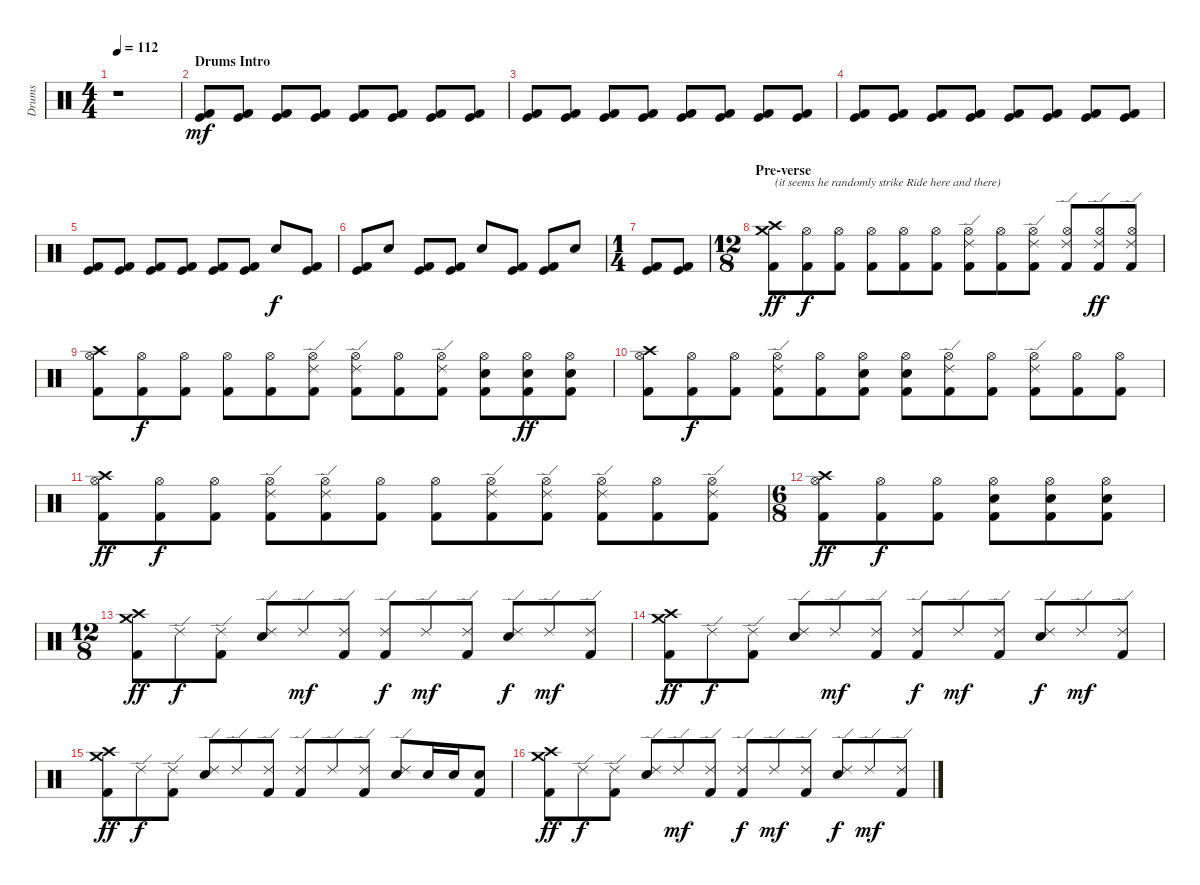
\track ("Drums" "Drums") {instrument percussion}
\staff {score}
\articulation defaults
\ts (4 4)
\tempo 112
\clef neutral
\ks c
r.1{dy mf} |
\section ("" "Drums Intro")
("Kick (hit)" "Kick (hit) 2").8 ("Kick (hit)" "Kick (hit) 2").8 ("Kick (hit)" "Kick (hit) 2").8 ("Kick (hit)" "Kick (hit) 2").8 ("Kick (hit)" "Kick (hit) 2").8 ("Kick (hit)" "Kick (hit) 2").8 ("Kick (hit)" "Kick (hit) 2").8 ("Kick (hit)" "Kick (hit) 2").8 |
("Kick (hit)" "Kick (hit) 2").8 ("Kick (hit)" "Kick (hit) 2").8 ("Kick (hit)" "Kick (hit) 2").8 ("Kick (hit)" "Kick (hit) 2").8 ("Kick (hit)" "Kick (hit) 2").8 ("Kick (hit)" "Kick (hit) 2").8 ("Kick (hit)" "Kick (hit) 2").8 ("Kick (hit)" "Kick (hit) 2").8 |
("Kick (hit)" "Kick (hit) 2").8 ("Kick (hit)" "Kick (hit) 2").8 ("Kick (hit)" "Kick (hit) 2").8 ("Kick (hit)" "Kick (hit) 2").8 ("Kick (hit)" "Kick (hit) 2").8 ("Kick (hit)" "Kick (hit) 2").8 ("Kick (hit)" "Kick (hit) 2").8 ("Kick (hit)" "Kick (hit) 2").8 |
("Kick (hit)" "Kick (hit) 2").8 ("Kick (hit)" "Kick (hit) 2").8 ("Kick (hit)" "Kick (hit) 2").8 ("Kick (hit)" "Kick (hit) 2").8 ("Kick (hit)" "Kick (hit) 2").8 ("Kick (hit)" "Kick (hit) 2").8 "Snare (hit) 2".8{dy f} ("Kick (hit)" "Kick (hit) 2").8 |
("Kick (hit)" "Kick (hit) 2").8 "Snare (hit) 2".8 ("Kick (hit)" "Kick (hit) 2").8 ("Kick (hit)" "Kick (hit) 2").8 "Snare (hit) 2".8 ("Kick (hit)" "Kick (hit) 2").8 ("Kick (hit)" "Kick (hit) 2").8 "Snare (hit) 2".8 |
\ts (1 4)
("Kick (hit)" "Kick (hit) 2").8 ("Kick (hit)" "Kick (hit) 2").8 |
\ts (12 8)
\section ("" "Pre-verse")
("Crash high (hit)" "Crash medium (hit)" "Kick (hit) 2").8{txt "(it seems he randomly strike Ride here and there)" dy ff} ("Hi-Hat (open)" "Kick (hit) 2").8{dy f} ("Hi-Hat (open)" "Kick (hit) 2").8 ("Hi-Hat (open)" "Kick (hit) 2").8 ("Hi-Hat (open)" "Kick (hit) 2").8 ("Hi-Hat (open)" "Kick (hit) 2").8 ("Hi-Hat (open)" "Ride (edge) 2" "Kick (hit) 2").8 ("Hi-Hat (open)" "Kick (hit) 2").8 ("Hi-Hat (open)" "Ride (edge) 2" "Kick (hit) 2").8 ("Hi-Hat (open)" "Ride (edge) 2" "Kick (hit) 2").8 ("Hi-Hat (open)" "Ride (edge) 2" "Kick (hit) 2").8{dy ff} ("Hi-Hat (open)" "Ride (edge) 2" "Kick (hit) 2").8 |
("Hi-Hat (open)" "Crash high (hit)" "Kick (hit) 2").8 ("Hi-Hat (open)" "Kick (hit) 2").8{dy f} ("Hi-Hat (open)" "Kick (hit) 2").8 ("Hi-Hat (open)" "Kick (hit) 2").8 ("Hi-Hat (open)" "Kick (hit) 2").8 ("Hi-Hat (open)" "Ride (edge) 2" "Kick (hit) 2").8 ("Hi-Hat (open)" "Ride (edge) 2" "Kick (hit) 2").8 ("Hi-Hat (open)" "Kick (hit) 2").8 ("Hi-Hat (open)" "Ride (edge) 2" "Kick (hit) 2").8 ("Hi-Hat (open)" "Snare (hit) 2" "Kick (hit) 2").8 ("Hi-Hat (open)" "Snare (hit) 2" "Kick (hit) 2").8{dy ff} ("Hi-Hat (open)" "Snare (hit) 2" "Kick (hit) 2").8 |
("Hi-Hat (open)" "Crash high (hit)" "Kick (hit) 2").8 ("Hi-Hat (open)" "Kick (hit) 2").8{dy f} ("Hi-Hat (open)" "Kick (hit) 2").8 ("Hi-Hat (open)" "Ride (edge) 2" "Kick (hit) 2").8 ("Hi-Hat (open)" "Kick (hit) 2").8 ("Hi-Hat (open)" "Snare (hit) 2" "Kick (hit) 2").8 ("Hi-Hat (open)" "Snare (hit) 2" "Kick (hit) 2").8 ("Hi-Hat (open)" "Ride (edge) 2" "Kick (hit) 2").8 ("Hi-Hat (open)" "Kick (hit) 2").8 ("Hi-Hat (open)" "Ride (edge) 2" "Kick (hit) 2").8 ("Hi-Hat (open)" "Kick (hit) 2").8 ("Hi-Hat (open)" "Kick (hit) 2").8 |
("Hi-Hat (open)" "Crash high (hit)" "Kick (hit) 2").8{dy ff} ("Hi-Hat (open)" "Kick (hit) 2").8{dy f} ("Hi-Hat (open)" "Kick (hit) 2").8 ("Hi-Hat (open)" "Ride (edge) 2" "Kick (hit) 2").8 ("Hi-Hat (open)" "Ride (edge) 2" "Kick (hit) 2").8 ("Hi-Hat (open)" "Kick (hit) 2").8 ("Hi-Hat (open)" "Kick (hit) 2").8 ("Hi-Hat (open)" "Ride (edge) 2" "Kick (hit) 2").8 ("Hi-Hat (open)" "Ride (edge) 2" "Kick (hit) 2").8 ("Hi-Hat (open)" "Ride (edge) 2" "Kick (hit) 2").8 ("Hi-Hat (open)" "Kick (hit) 2").8 ("Hi-Hat (open)" "Ride (edge) 2" "Kick (hit) 2").8 |
\ts (6 8)
("Hi-Hat (open)" "Crash high (hit)" "Kick (hit) 2").8{dy ff} ("Hi-Hat (open)" "Kick (hit) 2").8{dy f} ("Hi-Hat (open)" "Kick (hit) 2").8 ("Hi-Hat (open)" "Snare (hit) 2" "Kick (hit) 2").8 ("Hi-Hat (open)" "Snare (hit) 2" "Kick (hit) 2").8 ("Hi-Hat (open)" "Snare (hit) 2" "Kick (hit) 2").8 |
\ts (12 8)
("Crash high (hit)" "Crash medium (hit)" "Kick (hit) 2").8{dy ff} "Ride (edge) 2".8{dy f} ("Ride (edge) 2" "Kick (hit) 2").8 ("Ride (edge) 2" "Snare (hit) 2").8 "Ride (edge) 2".8{dy mf} ("Ride (edge) 2" "Kick (hit) 2").8 ("Ride (edge) 2" "Kick (hit) 2").8{dy f} "Ride (edge) 2".8{dy mf} ("Ride (edge) 2" "Kick (hit) 2").8 ("Ride (edge) 2" "Snare (hit) 2").8{dy f} "Ride (edge) 2".8{dy mf} ("Ride (edge) 2" "Kick (hit) 2").8 |
("Crash high (hit)" "Crash medium (hit)" "Kick (hit) 2").8{dy ff} "Ride (edge) 2".8{dy f} ("Ride (edge) 2" "Kick (hit) 2").8 ("Ride (edge) 2" "Snare (hit) 2").8 "Ride (edge) 2".8{dy mf} ("Ride (edge) 2" "Kick (hit) 2").8 ("Ride (edge) 2" "Kick (hit) 2").8{dy f} "Ride (edge) 2".8{dy mf} ("Ride (edge) 2" "Kick (hit) 2").8 ("Ride (edge) 2" "Snare (hit) 2").8{dy f} "Ride (edge) 2".8{dy mf} ("Ride (edge) 2" "Kick (hit) 2").8 |
("Crash high (hit)" "Crash medium (hit)" "Kick (hit) 2").8{dy ff} "Ride (edge) 2".8{dy f} ("Ride (edge) 2" "Kick (hit) 2").8 ("Ride (edge) 2" "Snare (hit) 2").8 "Ride (edge) 2".8 ("Ride (edge) 2" "Kick (hit) 2").8 ("Ride (edge) 2" "Kick (hit) 2").8 "Ride (edge) 2".8 ("Ride (edge) 2" "Kick (hit) 2").8 ("Ride (edge) 2" "Snare (hit) 2").8 "Snare (hit) 2".16 "Snare (hit) 2".16 ("Snare (hit) 2" "Kick (hit) 2").8 |
("Crash high (hit)" "Crash medium (hit)" "Kick (hit) 2").8{dy ff} "Ride (edge) 2".8{dy f} ("Ride (edge) 2" "Kick (hit) 2").8 ("Ride (edge) 2" "Snare (hit) 2").8 "Ride (edge) 2".8{dy mf} ("Ride (edge) 2" "Kick (hit) 2").8 ("Ride (edge) 2" "Kick (hit) 2").8{dy f} "Ride (edge) 2".8{dy mf} ("Ride (edge) 2" "Kick (hit) 2").8 ("Ride (edge) 2" "Snare (hit) 2").8{dy f} "Ride (edge) 2".8{dy mf} ("Ride (edge) 2" "Kick (hit) 2").8
